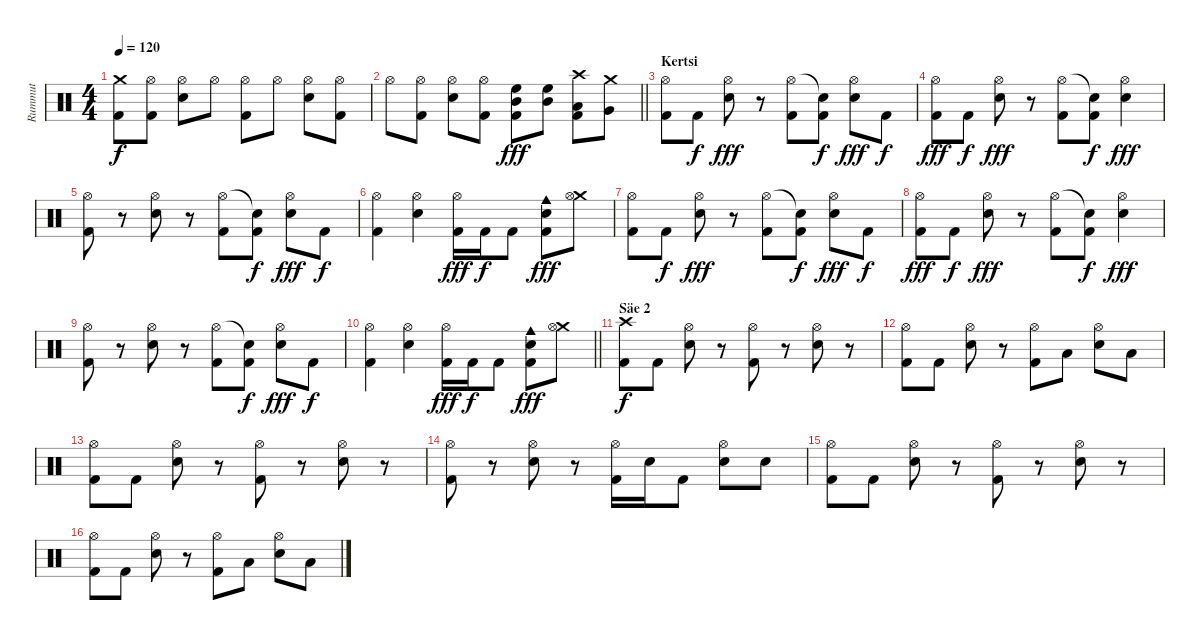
\track ("Rummut" "Rummut") {instrument percussion}
\staff {score}
\articulation defaults
\ts (4 4)
\tempo 120
\clef neutral
\ks c
("Crash medium (hit)" "Kick (hit) 2").8{dy f} ("Hi-Hat (open)" "Kick (hit) 2").8 ("Hi-Hat (open)" "Snare (hit) 2").8 "Hi-Hat (open)".8 ("Hi-Hat (open)" "Kick (hit) 2").8 "Hi-Hat (open)".8 ("Hi-Hat (open)" "Snare (hit) 2").8 ("Hi-Hat (open)" "Kick (hit) 2").8 |
\barLineRight lightlight "Hi-Hat (open)".8
("Hi-Hat (open)" "Kick (hit) 2").8 ("Hi-Hat (open)" "Snare (hit) 2").8 ("Hi-Hat (open)" "Kick (hit) 2").8 ("Mid Tom (hit)" "High Floor Tom (hit)" "Kick (hit) 2").8{dy fff} ("Mid Tom (hit)" "High Floor Tom (hit)").8 ("Low Tom (hit)" "Kick (hit) 2" "Crash high (hit)").8 ("Very Low Tom (hit)" "Crash medium (hit)").8 |
\section ("" "Kertsi")
("Hi-Hat (open)" "Kick (hit) 2").8 "Kick (hit) 2".8{dy f} ("Hi-Hat (open)" "Snare (hit) 2").8{dy fff} r.8 ("Hi-Hat (open)" "Kick (hit) 2").8 ("Snare (hit)"{t} "Kick (hit) 2").8{dy f} ("Hi-Hat (open)" "Snare (hit) 2").8{dy fff} "Kick (hit) 2".8{dy f} |
("Hi-Hat (open)" "Kick (hit) 2").8{dy fff} "Kick (hit) 2".8{dy f} ("Hi-Hat (open)" "Snare (hit) 2").8{dy fff} r.8 ("Hi-Hat (open)" "Kick (hit) 2").8 ("Snare (hit)"{t} "Kick (hit) 2").8{dy f} ("Hi-Hat (open)" "Snare (hit) 2").4{dy fff} |
("Hi-Hat (open)" "Kick (hit) 2").8 r.8 ("Hi-Hat (open)" "Snare (hit) 2").8 r.8 ("Hi-Hat (open)" "Kick (hit) 2").8 ("Snare (hit)"{t} "Kick (hit) 2").8{dy f} ("Hi-Hat (open)" "Snare (hit) 2").8{dy fff} "Kick (hit) 2".8{dy f} |
("Hi-Hat (open)" "Kick (hit) 2").4 ("Hi-Hat (open)" "Snare (hit) 2").4 ("Hi-Hat (open)" "Kick (hit) 2").16{dy fff} "Kick (hit) 2".16{dy f} "Kick (hit) 2".8 ("Cowbell medium (hit)" "Snare (hit) 2" "Kick (hit) 2").8{dy fff} ("Crash medium (hit)" "Hi-Hat (open)").8 |
("Hi-Hat (open)" "Kick (hit) 2").8 "Kick (hit) 2".8{dy f} ("Hi-Hat (open)" "Snare (hit) 2").8{dy fff} r.8 ("Hi-Hat (open)" "Kick (hit) 2").8 ("Snare (hit)"{t} "Kick (hit) 2").8{dy f} ("Hi-Hat (open)" "Snare (hit) 2").8{dy fff} "Kick (hit) 2".8{dy f} |
("Hi-Hat (open)" "Kick (hit) 2").8{dy fff} "Kick (hit) 2".8{dy f} ("Hi-Hat (open)" "Snare (hit) 2").8{dy fff} r.8 ("Hi-Hat (open)" "Kick (hit) 2").8 ("Snare (hit)"{t} "Kick (hit) 2").8{dy f} ("Hi-Hat (open)" "Snare (hit) 2").4{dy fff} |
("Hi-Hat (open)" "Kick (hit) 2").8 r.8 ("Hi-Hat (open)" "Snare (hit) 2").8 r.8 ("Hi-Hat (open)" "Kick (hit) 2").8 ("Snare (hit)"{t} "Kick (hit) 2").8{dy f} ("Hi-Hat (open)" "Snare (hit) 2").8{dy fff} "Kick (hit) 2".8{dy f} |
\barLineRight lightlight
("Hi-Hat (open)" "Kick (hit) 2").4 ("Hi-Hat (open)" "Snare (hit) 2").4 ("Hi-Hat (open)" "Kick (hit) 2").16{dy fff} "Kick (hit) 2".16{dy f} "Kick (hit) 2".8 ("Cowbell medium (hit)" "Snare (hit) 2" "Kick (hit) 2").8{dy fff} ("Crash medium (hit)" "Hi-Hat (open)").8 |
\section ("" "Säe 2")
("Crash high (hit)" "Kick (hit) 2").8{dy f} "Kick (hit) 2".8 ("Hi-Hat (open)" "Snare (hit) 2").8 r.8 ("Hi-Hat (open)" "Kick (hit) 2").8 r.8 ("Hi-Hat (open)" "Snare (hit) 2").8 r.8 |
("Hi-Hat (open)" "Kick (hit) 2").8 "Kick (hit) 2".8 ("Hi-Hat (open)" "Snare (hit) 2").8 r.8 ("Hi-Hat (open)" "Kick (hit) 2").8 "Low Tom (hit)".8 ("Hi-Hat (open)" "Snare (hit) 2").8 "Low Floor Tom (hit)".8 |
("Hi-Hat (open)" "Kick (hit) 2").8 "Kick (hit) 2".8 ("Hi-Hat (open)" "Snare (hit) 2").8 r.8 ("Hi-Hat (open)" "Kick (hit) 2").8 r.8 ("Hi-Hat (open)" "Snare (hit) 2").8 r.8 |
("Hi-Hat (open)" "Kick (hit) 2").8 r.8 ("Hi-Hat (open)" "Snare (hit) 2").8 r.8 ("Hi-Hat (open)" "Kick (hit) 2").16 "Snare (hit) 2".16 "Kick (hit) 2".8 ("Hi-Hat (open)" "Snare (hit) 2").8 "Snare (hit) 2".8 |
("Hi-Hat (open)" "Kick (hit) 2").8 "Kick (hit) 2".8 ("Hi-Hat (open)" "Snare (hit) 2").8 r.8 ("Hi-Hat (open)" "Kick (hit) 2").8 r.8 ("Hi-Hat (open)" "Snare (hit) 2").8 r.8 |
("Hi-Hat (open)" "Kick (hit) 2").8 "Kick (hit) 2".8 ("Hi-Hat (open)" "Snare (hit) 2").8 r.8 ("Hi-Hat (open)" "Kick (hit) 2").8 "Low Tom (hit)".8 ("Hi-Hat (open)" "Snare (hit) 2").8 "Low Floor Tom (hit)".8
